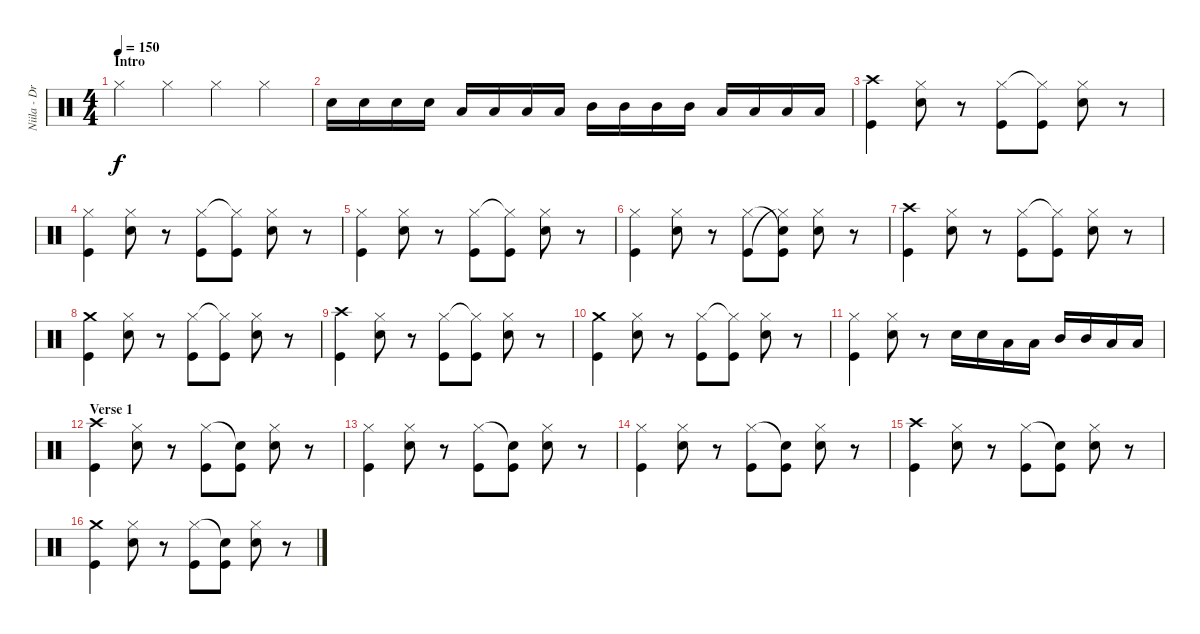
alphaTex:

\track ("Niila - Drums" "Niila - Dr") {instrument percussion}
\staff {score}
\articulation defaults
\ts (4 4)
\section ("" "Intro")
\tempo 150
\clef neutral
\ks c "Hi-Hat (closed)".4{dy f} "Hi-Hat (closed)".4 "Hi-Hat (closed)".4 "Hi-Hat (closed)".4
|
"Snare (hit) 2".16 "Snare (hit) 2".16 "Snare (hit) 2".16 "Snare (hit) 2".16 "Low Tom (hit)".16 "Low Tom (hit)".16 "Low Tom (hit)".16 "Low Tom (hit)".16 "Mid Tom (hit)".16 "Mid Tom (hit)".16 "Mid Tom (hit)".16 "Mid Tom (hit)".16 "Low Tom (hit)".16 "Low Tom (hit)".16 "Low Tom (hit)".16 "Low Tom (hit)".16 |
("Crash high (hit)" "Kick (hit)").4 ("Hi-Hat (closed)" "Snare (hit) 2").8 r.8 ("Hi-Hat (closed)" "Kick (hit)").8 ("Hi-Hat (closed)"{t} "Kick (hit)").8 ("Hi-Hat (closed)" "Snare (hit) 2").8 r.8 |
("Hi-Hat (closed)" "Kick (hit)").4 ("Hi-Hat (closed)" "Snare (hit) 2").8 r.8 ("Hi-Hat (closed)" "Kick (hit)").8 ("Hi-Hat (closed)"{t} "Kick (hit)").8 ("Hi-Hat (closed)" "Snare (hit) 2").8 r.8 |
("Hi-Hat (closed)" "Kick (hit)").4 ("Hi-Hat (closed)" "Snare (hit) 2").8 r.8 ("Hi-Hat (closed)" "Kick (hit)").8 ("Hi-Hat (closed)"{t} "Kick (hit)").8 ("Hi-Hat (closed)" "Snare (hit) 2").8 r.8 |
("Hi-Hat (closed)" "Kick (hit)").4 ("Hi-Hat (closed)" "Snare (hit) 2").8 r.8 ("Hi-Hat (closed)" "Kick (hit)").8 ("Snare (hit)"{t} "Hi-Hat (closed)"{t} "Kick (hit)").8 ("Hi-Hat (closed)" "Snare (hit) 2").8 r.8 |
("Crash high (hit)" "Kick (hit)").4 ("Hi-Hat (closed)" "Snare (hit) 2").8 r.8 ("Hi-Hat (closed)" "Kick (hit)").8 ("Hi-Hat (closed)"{t} "Kick (hit)").8 ("Hi-Hat (closed)" "Snare (hit) 2").8 r.8 |
("Crash medium (hit)" "Kick (hit)").4 ("Hi-Hat (closed)" "Snare (hit) 2").8 r.8 ("Hi-Hat (closed)" "Kick (hit)").8 ("Hi-Hat (closed)"{t} "Kick (hit)").8 ("Hi-Hat (closed)" "Snare (hit) 2").8 r.8 |
("Crash high (hit)" "Kick (hit)").4 ("Hi-Hat (closed)" "Snare (hit) 2").8 r.8 ("Hi-Hat (closed)" "Kick (hit)").8 ("Hi-Hat (closed)"{t} "Kick (hit)").8 ("Hi-Hat (closed)" "Snare (hit) 2").8 r.8 |
("Crash medium (hit)" "Kick (hit)").4 ("Hi-Hat (closed)" "Snare (hit) 2").8 r.8 ("Hi-Hat (closed)" "Kick (hit)").8 ("Hi-Hat (closed)"{t} "Kick (hit)").8 ("Hi-Hat (closed)" "Snare (hit) 2").8 r.8 |
("Hi-Hat (closed)" "Kick (hit)").4 ("Hi-Hat (closed)" "Snare (hit) 2").8 r.8 "Snare (hit) 2".16 "Snare (hit) 2".16 "Low Tom (hit)".16 "Low Tom (hit)".16 "Mid Tom (hit)".16 "Mid Tom (hit)".16 "Low Tom (hit)".16 "Low Tom (hit)".16 |
\section ("" "Verse 1")
("Crash high (hit)" "Kick (hit)").4 ("Hi-Hat (closed)" "Snare (hit) 2").8 r.8 ("Hi-Hat (closed)" "Kick (hit)").8 ("Snare (hit)"{t} "Kick (hit)").8 ("Hi-Hat (closed)" "Snare (hit) 2").8 r.8 |
("Hi-Hat (closed)" "Kick (hit)").4 ("Hi-Hat (closed)" "Snare (hit) 2").8 r.8 ("Hi-Hat (closed)" "Kick (hit)").8 ("Snare (hit)"{t} "Kick (hit)").8 ("Hi-Hat (closed)" "Snare (hit) 2").8 r.8 |
("Hi-Hat (closed)" "Kick (hit)").4 ("Hi-Hat (closed)" "Snare (hit) 2").8 r.8 ("Hi-Hat (closed)" "Kick (hit)").8 ("Snare (hit)"{t} "Kick (hit)").8 ("Hi-Hat (closed)" "Snare (hit) 2").8 r.8 |
("Crash high (hit)" "Kick (hit)").4 ("Hi-Hat (closed)" "Snare (hit) 2").8 r.8 ("Hi-Hat (closed)" "Kick (hit)").8 ("Snare (hit)"{t} "Kick (hit)").8 ("Hi-Hat (closed)" "Snare (hit) 2").8 r.8 |
("Crash medium (hit)" "Kick (hit)").4 ("Hi-Hat (closed)" "Snare (hit) 2").8 r.8 ("Hi-Hat (closed)" "Kick (hit)").8 ("Snare (hit)"{t} "Kick (hit)").8 ("Hi-Hat (closed)" "Snare (hit) 2").8 r.8
